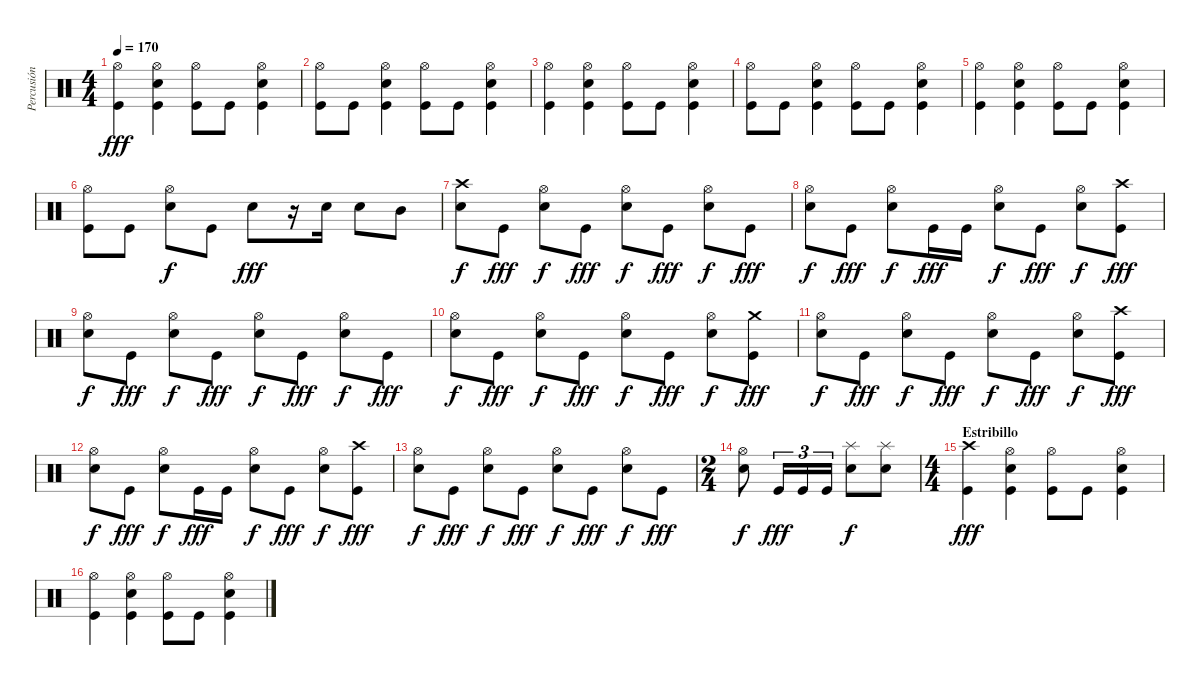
\track ("Percusión" "Percusión") {instrument percussion}
\staff {score}
\articulation defaults
\ts (4 4)
\tempo 170
\clef neutral
\ks c
("Hi-Hat (open)" "Kick (hit)").4{dy fff} ("Hi-Hat (open)" "Electric Snare (hit)" "Kick (hit)").4 ("Hi-Hat (open)" "Kick (hit)").8 "Kick (hit)".8 ("Hi-Hat (open)" "Electric Snare (hit)" "Kick (hit)").4 |
("Hi-Hat (open)" "Kick (hit)").8 "Kick (hit)".8 ("Hi-Hat (open)" "Electric Snare (hit)" "Kick (hit)").4 ("Hi-Hat (open)" "Kick (hit)").8 "Kick (hit)".8 ("Hi-Hat (open)" "Electric Snare (hit)" "Kick (hit)").4 |
("Hi-Hat (open)" "Kick (hit)").4 ("Hi-Hat (open)" "Electric Snare (hit)" "Kick (hit)").4 ("Hi-Hat (open)" "Kick (hit)").8 "Kick (hit)".8 ("Hi-Hat (open)" "Electric Snare (hit)" "Kick (hit)").4 |
("Hi-Hat (open)" "Kick (hit)").8 "Kick (hit)".8 ("Hi-Hat (open)" "Electric Snare (hit)" "Kick (hit)").4 ("Hi-Hat (open)" "Kick (hit)").8 "Kick (hit)".8 ("Hi-Hat (open)" "Electric Snare (hit)" "Kick (hit)").4 |
("Hi-Hat (open)" "Kick (hit)").4 ("Hi-Hat (open)" "Electric Snare (hit)" "Kick (hit)").4 ("Hi-Hat (open)" "Kick (hit)").8 "Kick (hit)".8 ("Hi-Hat (open)" "Electric Snare (hit)" "Kick (hit)").4 |
("Hi-Hat (open)" "Kick (hit)").8 "Kick (hit)".8 ("Hi-Hat (open)" "Electric Snare (hit)").8{dy f} "Kick (hit)".8 "Electric Snare (hit)".8{dy fff} r.16 "Electric Snare (hit)".16 "Electric Snare (hit)".8 "Mid Tom (hit)".8 |
("Crash high (hit)" "Electric Snare (hit)").8{dy f} "Kick (hit)".8{dy fff} ("Hi-Hat (open)" "Electric Snare (hit)").8{dy f} "Kick (hit)".8{dy fff} ("Hi-Hat (open)" "Electric Snare (hit)").8{dy f} "Kick (hit)".8{dy fff} ("Hi-Hat (open)" "Electric Snare (hit)").8{dy f} "Kick (hit)".8{dy fff} |
("Hi-Hat (open)" "Electric Snare (hit)").8{dy f} "Kick (hit)".8{dy fff} ("Hi-Hat (open)" "Electric Snare (hit)").8{dy f} "Kick (hit)".16{dy fff} "Kick (hit)".16 ("Hi-Hat (open)" "Electric Snare (hit)").8{dy f} "Kick (hit)".8{dy fff} ("Hi-Hat (open)" "Electric Snare (hit)").8{dy f} ("Crash high (hit)" "Kick (hit)").8{dy fff} |
("Hi-Hat (open)" "Electric Snare (hit)").8{dy f} "Kick (hit)".8{dy fff} ("Hi-Hat (open)" "Electric Snare (hit)").8{dy f} "Kick (hit)".8{dy fff} ("Hi-Hat (open)" "Electric Snare (hit)").8{dy f} "Kick (hit)".8{dy fff} ("Hi-Hat (open)" "Electric Snare (hit)").8{dy f} "Kick (hit)".8{dy fff} |
("Hi-Hat (open)" "Electric Snare (hit)").8{dy f} "Kick (hit)".8{dy fff} ("Hi-Hat (open)" "Electric Snare (hit)").8{dy f} "Kick (hit)".8{dy fff} ("Hi-Hat (open)" "Electric Snare (hit)").8{dy f} "Kick (hit)".8{dy fff} ("Hi-Hat (open)" "Electric Snare (hit)").8{dy f} ("Crash medium (hit)" "Kick (hit)").8{dy fff} |
("Hi-Hat (open)" "Electric Snare (hit)").8{dy f} "Kick (hit)".8{dy fff} ("Hi-Hat (open)" "Electric Snare (hit)").8{dy f} "Kick (hit)".8{dy fff} ("Hi-Hat (open)" "Electric Snare (hit)").8{dy f} "Kick (hit)".8{dy fff} ("Hi-Hat (open)" "Electric Snare (hit)").8{dy f} ("Crash high (hit)" "Kick (hit)").8{dy fff} |
("Hi-Hat (open)" "Electric Snare (hit)").8{dy f} "Kick (hit)".8{dy fff} ("Hi-Hat (open)" "Electric Snare (hit)").8{dy f} "Kick (hit)".16{dy fff} "Kick (hit)".16 ("Hi-Hat (open)" "Electric Snare (hit)").8{dy f} "Kick (hit)".8{dy fff} ("Hi-Hat (open)" "Electric Snare (hit)").8{dy f} ("Crash high (hit)" "Kick (hit)").8{dy fff} |
("Hi-Hat (open)" "Electric Snare (hit)").8{dy f} "Kick (hit)".8{dy fff} ("Hi-Hat (open)" "Electric Snare (hit)").8{dy f} "Kick (hit)".8{dy fff} ("Hi-Hat (open)" "Electric Snare (hit)").8{dy f} "Kick (hit)".8{dy fff} ("Hi-Hat (open)" "Electric Snare (hit)").8{dy f} "Kick (hit)".8{dy fff} |
\ts (2 4)
("Hi-Hat (open)" "Electric Snare (hit)").8{dy f} "Kick (hit)".16{tu (3 2) dy fff} "Kick (hit)".16{tu (3 2)} "Kick (hit)".16{tu (3 2)} ("Splash (hit)" "Electric Snare (hit)").8{dy f} ("Splash (hit)" "Electric Snare (hit)").8 |
\ts (4 4)
\section ("" "Estribillo")
("Crash high (hit)" "Kick (hit)").4{dy fff} ("Hi-Hat (open)" "Electric Snare (hit)" "Kick (hit)").4 ("Hi-Hat (open)" "Kick (hit)").8 "Kick (hit)".8 ("Hi-Hat (open)" "Electric Snare (hit)" "Kick (hit)").4 |
("Hi-Hat (open)" "Kick (hit)").4 ("Hi-Hat (open)" "Electric Snare (hit)" "Kick (hit)").4 ("Hi-Hat (open)" "Kick (hit)").8 "Kick (hit)".8 ("Hi-Hat (open)" "Electric Snare (hit)" "Kick (hit)").4
